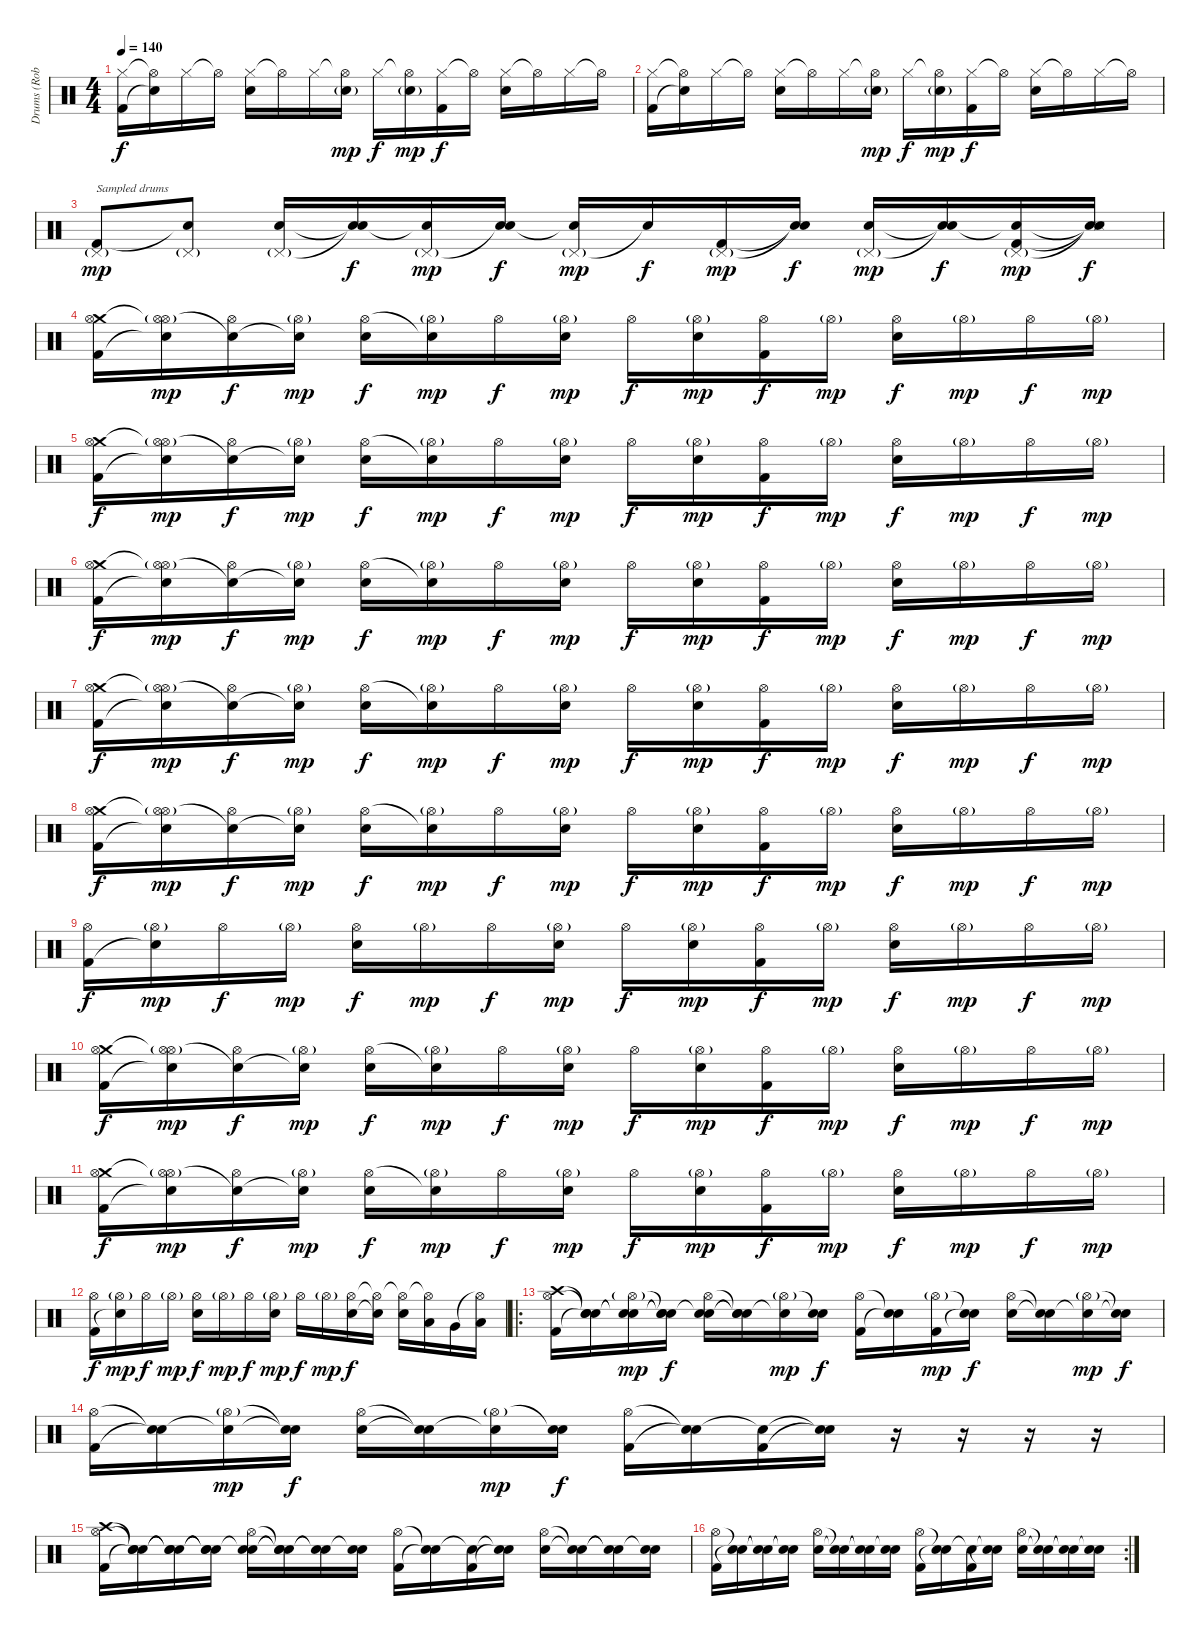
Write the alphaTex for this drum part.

\track ("Drums (Rob Bourdon)" "Drums (Rob") {instrument percussion}
\staff {score}
\articulation defaults
\ts (4 4)
\tempo 140
\clef neutral
\ks c
("Hi-Hat (closed)" "Kick (hit) 2").16{dy f volume 14} ("Hi-Hat (open)"{t} "Snare (hit)"{t}).16 "Hi-Hat (closed)".16 "Hi-Hat (open)"{t}.16 ("Hi-Hat (closed)" "Electric Snare (hit)").16 "Hi-Hat (open)"{t}.16 "Hi-Hat (closed)".16 ("Hi-Hat (open)"{t} "Electric Snare (hit)"{g}).16{dy mp} "Hi-Hat (closed)".16{dy f} ("Hi-Hat (open)"{t} "Electric Snare (hit)"{g}).16{dy mp} ("Hi-Hat (closed)" "Kick (hit) 2").16{dy f} "Hi-Hat (open)"{t}.16 ("Hi-Hat (closed)" "Electric Snare (hit)").16 "Hi-Hat (open)"{t}.16 "Hi-Hat (closed)".16 "Hi-Hat (open)"{t}.16 |
("Hi-Hat (closed)" "Kick (hit) 2").16{volume 14} ("Hi-Hat (open)"{t} "Snare (hit)"{t}).16 "Hi-Hat (closed)".16 "Hi-Hat (open)"{t}.16 ("Hi-Hat (closed)" "Electric Snare (hit)").16 "Hi-Hat (open)"{t}.16 "Hi-Hat (closed)".16 ("Hi-Hat (open)"{t} "Electric Snare (hit)"{g}).16{dy mp} "Hi-Hat (closed)".16{dy f} ("Hi-Hat (open)"{t} "Electric Snare (hit)"{g}).16{dy mp} ("Hi-Hat (closed)" "Kick (hit) 2").16{dy f} "Hi-Hat (open)"{t}.16 ("Hi-Hat (closed)" "Electric Snare (hit)").16 "Hi-Hat (open)"{t}.16 "Hi-Hat (closed)".16 "Hi-Hat (open)"{t}.16 |
("Pedal Hi-Hat (hit)"{g} "Kick (hit) 2").8{txt "Sampled drums" dy mp volume 10} ("Pedal Hi-Hat (hit)"{g} "Snare (hit)"{t}).8 ("Pedal Hi-Hat (hit)"{g} "Electric Snare (hit)").16 ("Snare (hit)"{t} "Snare (hit)"{t}).16{dy f} ("Pedal Hi-Hat (hit)"{g} "Snare (hit)"{t}).16{dy mp} ("Snare (hit)"{t} "Electric Snare (hit)").16{dy f} ("Pedal Hi-Hat (hit)"{g} "Snare (hit)"{t}).16{dy mp} "Snare (hit)"{t}.16{dy f} ("Pedal Hi-Hat (hit)"{g} "Kick (hit) 2").16{dy mp} ("Snare (hit)"{t} "Snare (hit)"{t}).16{dy f} ("Pedal Hi-Hat (hit)"{g} "Electric Snare (hit)").16{dy mp} ("Snare (hit)"{t} "Snare (hit)"{t}).16{dy f} ("Pedal Hi-Hat (hit)"{g} "Snare (hit)"{t} "Kick (hit) 2").16{dy mp} ("Snare (hit)"{t} "Snare (hit)"{t} "Metronome (hit)"{t}).16{dy f} |
("Crash medium (hit)" "Hi-Hat (open)" "Kick (hit) 2").16{volume 14} ("Hi-Hat (open)"{t} "Hi-Hat (open)"{g} "Snare (hit)"{t}).16{dy mp} ("Snare (hit)"{t} "Hi-Hat (open)").16{dy f} ("Snare (hit)"{t} "Hi-Hat (open)"{g}).16{dy mp} ("Hi-Hat (open)" "Electric Snare (hit)").16{dy f} ("Snare (hit)"{t} "Hi-Hat (open)"{g}).16{dy mp} "Hi-Hat (open)".16{dy f} ("Hi-Hat (open)"{g} "Electric Snare (hit)").16{dy mp} "Hi-Hat (open)".16{dy f} ("Hi-Hat (open)"{g} "Electric Snare (hit)").16{dy mp} ("Hi-Hat (open)" "Kick (hit) 2").16{dy f} "Hi-Hat (open)"{g}.16{dy mp} ("Hi-Hat (open)" "Electric Snare (hit)").16{dy f} "Hi-Hat (open)"{g}.16{dy mp} "Hi-Hat (open)".16{dy f} "Hi-Hat (open)"{g}.16{dy mp} |
("Crash medium (hit)" "Hi-Hat (open)" "Kick (hit) 2").16{dy f volume 14} ("Hi-Hat (open)"{t} "Hi-Hat (open)"{g} "Snare (hit)"{t}).16{dy mp} ("Snare (hit)"{t} "Hi-Hat (open)").16{dy f} ("Snare (hit)"{t} "Hi-Hat (open)"{g}).16{dy mp} ("Hi-Hat (open)" "Electric Snare (hit)").16{dy f} ("Snare (hit)"{t} "Hi-Hat (open)"{g}).16{dy mp} "Hi-Hat (open)".16{dy f} ("Hi-Hat (open)"{g} "Electric Snare (hit)").16{dy mp} "Hi-Hat (open)".16{dy f} ("Hi-Hat (open)"{g} "Electric Snare (hit)").16{dy mp} ("Hi-Hat (open)" "Kick (hit) 2").16{dy f} "Hi-Hat (open)"{g}.16{dy mp} ("Hi-Hat (open)" "Electric Snare (hit)").16{dy f} "Hi-Hat (open)"{g}.16{dy mp} "Hi-Hat (open)".16{dy f} "Hi-Hat (open)"{g}.16{dy mp} |
("Crash medium (hit)" "Hi-Hat (open)" "Kick (hit) 2").16{dy f volume 14} ("Hi-Hat (open)"{t} "Hi-Hat (open)"{g} "Snare (hit)"{t}).16{dy mp} ("Snare (hit)"{t} "Hi-Hat (open)").16{dy f} ("Snare (hit)"{t} "Hi-Hat (open)"{g}).16{dy mp} ("Hi-Hat (open)" "Electric Snare (hit)").16{dy f} ("Snare (hit)"{t} "Hi-Hat (open)"{g}).16{dy mp} "Hi-Hat (open)".16{dy f} ("Hi-Hat (open)"{g} "Electric Snare (hit)").16{dy mp} "Hi-Hat (open)".16{dy f} ("Hi-Hat (open)"{g} "Electric Snare (hit)").16{dy mp} ("Hi-Hat (open)" "Kick (hit) 2").16{dy f} "Hi-Hat (open)"{g}.16{dy mp} ("Hi-Hat (open)" "Electric Snare (hit)").16{dy f} "Hi-Hat (open)"{g}.16{dy mp} "Hi-Hat (open)".16{dy f} "Hi-Hat (open)"{g}.16{dy mp} |
("Crash medium (hit)" "Hi-Hat (open)" "Kick (hit) 2").16{dy f volume 14} ("Hi-Hat (open)"{t} "Hi-Hat (open)"{g} "Snare (hit)"{t}).16{dy mp} ("Snare (hit)"{t} "Hi-Hat (open)").16{dy f} ("Snare (hit)"{t} "Hi-Hat (open)"{g}).16{dy mp} ("Hi-Hat (open)" "Electric Snare (hit)").16{dy f} ("Snare (hit)"{t} "Hi-Hat (open)"{g}).16{dy mp} "Hi-Hat (open)".16{dy f} ("Hi-Hat (open)"{g} "Electric Snare (hit)").16{dy mp} "Hi-Hat (open)".16{dy f} ("Hi-Hat (open)"{g} "Electric Snare (hit)").16{dy mp} ("Hi-Hat (open)" "Kick (hit) 2").16{dy f} "Hi-Hat (open)"{g}.16{dy mp} ("Hi-Hat (open)" "Electric Snare (hit)").16{dy f} "Hi-Hat (open)"{g}.16{dy mp} "Hi-Hat (open)".16{dy f} "Hi-Hat (open)"{g}.16{dy mp} |
("Crash medium (hit)" "Hi-Hat (open)" "Kick (hit) 2").16{dy f volume 14} ("Hi-Hat (open)"{t} "Hi-Hat (open)"{g} "Snare (hit)"{t}).16{dy mp} ("Snare (hit)"{t} "Hi-Hat (open)").16{dy f} ("Snare (hit)"{t} "Hi-Hat (open)"{g}).16{dy mp} ("Hi-Hat (open)" "Electric Snare (hit)").16{dy f} ("Snare (hit)"{t} "Hi-Hat (open)"{g}).16{dy mp} "Hi-Hat (open)".16{dy f} ("Hi-Hat (open)"{g} "Electric Snare (hit)").16{dy mp} "Hi-Hat (open)".16{dy f} ("Hi-Hat (open)"{g} "Electric Snare (hit)").16{dy mp} ("Hi-Hat (open)" "Kick (hit) 2").16{dy f} "Hi-Hat (open)"{g}.16{dy mp} ("Hi-Hat (open)" "Electric Snare (hit)").16{dy f} "Hi-Hat (open)"{g}.16{dy mp} "Hi-Hat (open)".16{dy f} "Hi-Hat (open)"{g}.16{dy mp} |
("Hi-Hat (open)" "Kick (hit) 2").16{dy f volume 14} ("Hi-Hat (open)"{g} "Snare (hit)"{t}).16{dy mp} "Hi-Hat (open)".16{dy f} "Hi-Hat (open)"{g}.16{dy mp} ("Hi-Hat (open)" "Electric Snare (hit)").16{dy f} "Hi-Hat (open)"{g}.16{dy mp} "Hi-Hat (open)".16{dy f} ("Hi-Hat (open)"{g} "Electric Snare (hit)").16{dy mp} "Hi-Hat (open)".16{dy f} ("Hi-Hat (open)"{g} "Electric Snare (hit)").16{dy mp} ("Hi-Hat (open)" "Kick (hit) 2").16{dy f} "Hi-Hat (open)"{g}.16{dy mp} ("Hi-Hat (open)" "Electric Snare (hit)").16{dy f} "Hi-Hat (open)"{g}.16{dy mp} "Hi-Hat (open)".16{dy f} "Hi-Hat (open)"{g}.16{dy mp} |
("Crash medium (hit)" "Hi-Hat (open)" "Kick (hit) 2").16{dy f volume 14} ("Hi-Hat (open)"{t} "Hi-Hat (open)"{g} "Snare (hit)"{t}).16{dy mp} ("Snare (hit)"{t} "Hi-Hat (open)").16{dy f} ("Snare (hit)"{t} "Hi-Hat (open)"{g}).16{dy mp} ("Hi-Hat (open)" "Electric Snare (hit)").16{dy f} ("Snare (hit)"{t} "Hi-Hat (open)"{g}).16{dy mp} "Hi-Hat (open)".16{dy f} ("Hi-Hat (open)"{g} "Electric Snare (hit)").16{dy mp} "Hi-Hat (open)".16{dy f} ("Hi-Hat (open)"{g} "Electric Snare (hit)").16{dy mp} ("Hi-Hat (open)" "Kick (hit) 2").16{dy f} "Hi-Hat (open)"{g}.16{dy mp} ("Hi-Hat (open)" "Electric Snare (hit)").16{dy f} "Hi-Hat (open)"{g}.16{dy mp} "Hi-Hat (open)".16{dy f} "Hi-Hat (open)"{g}.16{dy mp} |
("Crash medium (hit)" "Hi-Hat (open)" "Kick (hit) 2").16{dy f volume 14} ("Hi-Hat (open)"{t} "Hi-Hat (open)"{g} "Snare (hit)"{t}).16{dy mp} ("Snare (hit)"{t} "Hi-Hat (open)").16{dy f} ("Snare (hit)"{t} "Hi-Hat (open)"{g}).16{dy mp} ("Hi-Hat (open)" "Electric Snare (hit)").16{dy f} ("Snare (hit)"{t} "Hi-Hat (open)"{g}).16{dy mp} "Hi-Hat (open)".16{dy f} ("Hi-Hat (open)"{g} "Electric Snare (hit)").16{dy mp} "Hi-Hat (open)".16{dy f} ("Hi-Hat (open)"{g} "Electric Snare (hit)").16{dy mp} ("Hi-Hat (open)" "Kick (hit) 2").16{dy f} "Hi-Hat (open)"{g}.16{dy mp} ("Hi-Hat (open)" "Electric Snare (hit)").16{dy f} "Hi-Hat (open)"{g}.16{dy mp} "Hi-Hat (open)".16{dy f} "Hi-Hat (open)"{g}.16{dy mp} |
("Hi-Hat (open)" "Kick (hit) 2").16{dy f volume 14} ("Hi-Hat (open)"{g} "Snare (hit)"{t}).16{dy mp} "Hi-Hat (open)".16{dy f} "Hi-Hat (open)"{g}.16{dy mp} ("Hi-Hat (open)" "Electric Snare (hit)").16{dy f} "Hi-Hat (open)"{g}.16{dy mp} "Hi-Hat (open)".16{dy f} ("Hi-Hat (open)"{g} "Electric Snare (hit)").16{dy mp} "Hi-Hat (open)".16{dy f} "Hi-Hat (open)"{g}.16{dy mp} ("Hi-Hat (open)" "Electric Snare (hit)").16{dy f} ("Hi-Hat (open)"{t} "Snare (hit)"{t}).16 ("Hi-Hat (open)"{t} "Electric Snare (hit)").16 ("Hi-Hat (open)"{t} "Low Tom (hit)").16 "Very Low Tom (hit)".16 ("Hi-Hat (open)"{t} "Low Floor Tom (hit)").16 |
\ro
("Crash high (hit)" "Hi-Hat (open)" "Kick (hit) 2").16 ("Snare (hit)"{t} "Snare (hit)"{t} "Snare (hit)"{t}).16 ("Snare (hit)"{t} "Hi-Hat (open)"{g} "Snare (hit)"{t}).16{dy mp} ("Snare (hit)"{t} "Snare (hit)"{t} "Snare (hit)"{t}).16{dy f} ("Snare (hit)"{t} "Hi-Hat (open)" "Electric Snare (hit)").16 ("Snare (hit)"{t} "Snare (hit)"{t} "Snare (hit)"{t}).16 ("Hi-Hat (open)"{g} "Snare (hit)"{t}).16{dy mp} ("Snare (hit)"{t} "Electric Snare (hit)").16{dy f} ("Hi-Hat (open)" "Kick (hit) 2").16 ("Snare (hit)"{t} "Snare (hit)"{t}).16 ("Hi-Hat (open)"{g} "Kick (hit) 2").16{dy mp} ("Snare (hit)"{t} "Snare (hit)"{t}).16{dy f} ("Hi-Hat (open)" "Electric Snare (hit)").16 ("Snare (hit)"{t} "Snare (hit)"{t}).16 ("Hi-Hat (open)"{g} "Snare (hit)"{t}).16{dy mp} ("Snare (hit)"{t} "Snare (hit)"{t}).16{dy f} |
("Hi-Hat (open)" "Kick (hit) 2").16 ("Snare (hit)"{t} "Snare (hit)"{t}).16 ("Hi-Hat (open)"{g} "Snare (hit)"{t}).16{dy mp} ("Snare (hit)"{t} "Snare (hit)"{t}).16{dy f} ("Hi-Hat (open)" "Electric Snare (hit)").16 ("Snare (hit)"{t} "Snare (hit)"{t}).16 ("Hi-Hat (open)"{g} "Snare (hit)"{t}).16{dy mp} ("Snare (hit)"{t} "Electric Snare (hit)").16{dy f} ("Hi-Hat (open)" "Kick (hit) 2").16 ("Snare (hit)"{t} "Snare (hit)"{t}).16 ("Snare (hit)"{t} "Kick (hit) 2").16 ("Snare (hit)"{t} "Snare (hit)"{t}).16 r.16 r.16 r.16 r.16 |
("Crash high (hit)" "Hi-Hat (open)" "Kick (hit) 2").16 ("Snare (hit)"{t} "Snare (hit)"{t} "Snare (hit)"{t}).16 ("Snare (hit)"{t} "Snare (hit)"{t} "Snare (hit)"{t}).16 ("Snare (hit)"{t} "Snare (hit)"{t} "Snare (hit)"{t}).16 ("Snare (hit)"{t} "Hi-Hat (open)" "Electric Snare (hit)").16 ("Snare (hit)"{t} "Snare (hit)"{t} "Snare (hit)"{t}).16 ("Snare (hit)"{t} "Snare (hit)"{t}).16 ("Snare (hit)"{t} "Electric Snare (hit)").16 ("Hi-Hat (open)" "Kick (hit) 2").16 ("Snare (hit)"{t} "Snare (hit)"{t}).16 ("Snare (hit)"{t} "Kick (hit) 2").16 ("Snare (hit)"{t} "Snare (hit)"{t}).16 ("Hi-Hat (open)" "Electric Snare (hit)").16 ("Snare (hit)"{t} "Snare (hit)"{t}).16 ("Snare (hit)"{t} "Snare (hit)"{t}).16 ("Snare (hit)"{t} "Electric Snare (hit)").16 |
\rc 2
("Hi-Hat (open)" "Kick (hit) 2").16 ("Snare (hit)"{t} "Snare (hit)"{t}).16 ("Snare (hit)"{t} "Snare (hit)"{t}).16 ("Snare (hit)"{t} "Snare (hit)"{t}).16 ("Hi-Hat (open)" "Electric Snare (hit)").16 ("Snare (hit)"{t} "Snare (hit)"{t}).16 ("Snare (hit)"{t} "Snare (hit)"{t}).16 ("Snare (hit)"{t} "Electric Snare (hit)").16 ("Hi-Hat (open)" "Kick (hit) 2").16 ("Snare (hit)"{t} "Snare (hit)"{t}).16 ("Snare (hit)"{t} "Kick (hit) 2").16 ("Snare (hit)"{t} "Snare (hit)"{t}).16 ("Hi-Hat (open)" "Electric Snare (hit)").16 ("Snare (hit)"{t} "Snare (hit)"{t}).16 ("Snare (hit)"{t} "Snare (hit)"{t}).16 ("Snare (hit)"{t} "Electric Snare (hit)").16
